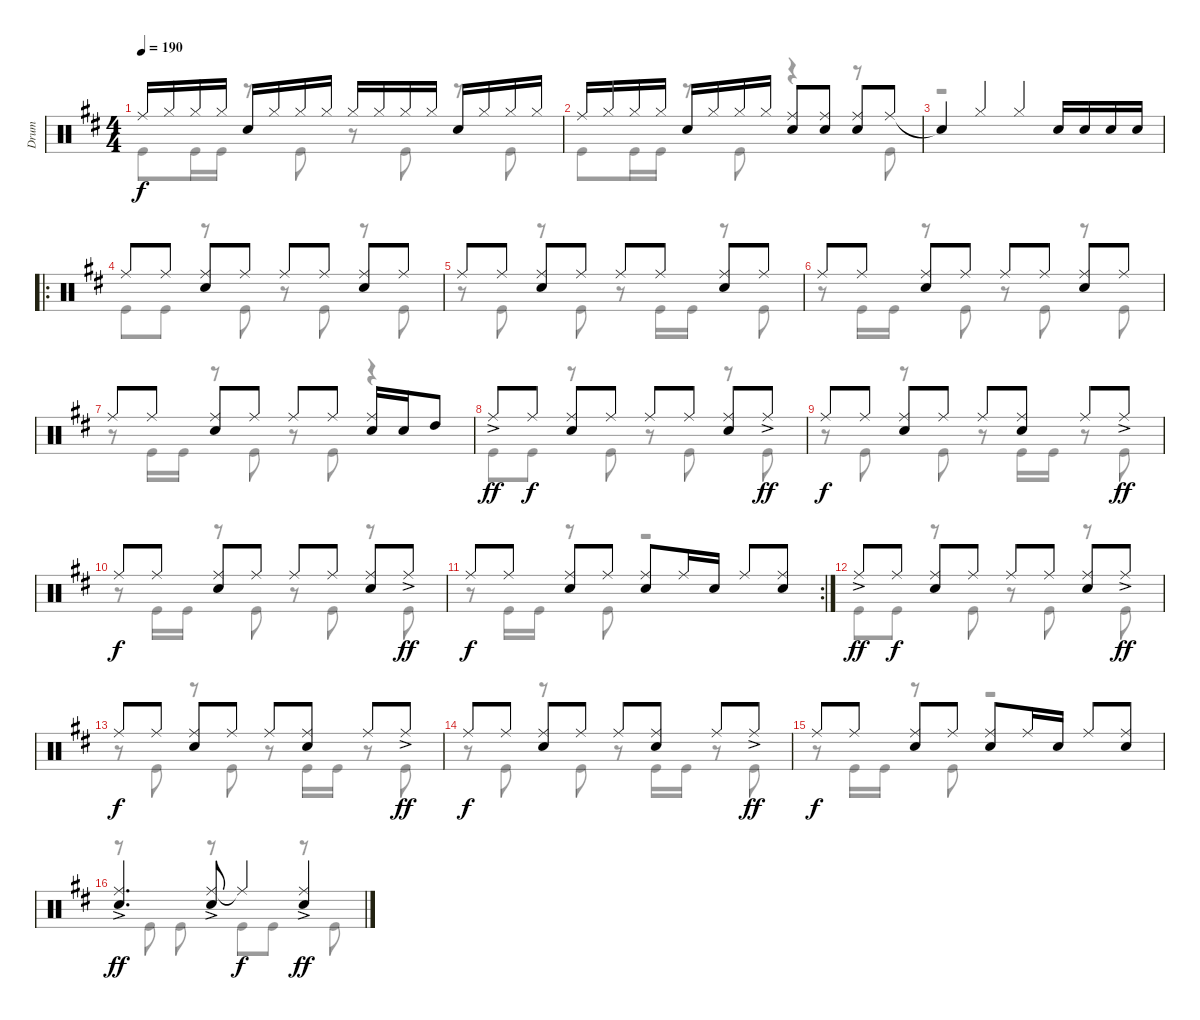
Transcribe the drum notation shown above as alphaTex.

\track ("Drum" "Drum") {instrument percussion}
\staff {score}
\articulation defaults
\voice
\ts (4 4)
\tempo 190
\clef neutral
\ks d "Ride (middle)".16{dy f} "Hi-Hat (closed)".16 "Hi-Hat (closed)".16 "Hi-Hat (closed)".16 "Snare (hit) 2".16 "Hi-Hat (closed)".16 "Hi-Hat (closed)".16 "Hi-Hat (closed)".16 "Hi-Hat (closed)".16 "Hi-Hat (closed)".16 "Hi-Hat (closed)".16 "Hi-Hat (closed)".16 "Snare (hit) 2".16 "Hi-Hat (closed)".16 "Hi-Hat (closed)".16 "Hi-Hat (closed)".16
|
"Ride (middle)".16 "Hi-Hat (closed)".16 "Hi-Hat (closed)".16 "Hi-Hat (closed)".16 "Snare (hit) 2".16 "Hi-Hat (closed)".16 "Hi-Hat (closed)".16 "Hi-Hat (closed)".16 ("Ride (middle)" "Snare (hit) 2").8 ("Ride (middle)" "Snare (hit) 2").8 ("Ride (middle)" "Snare (hit) 2").8 "Ride (middle)".8 |
"Snare (hit)"{t}.4 "Hi-Hat (closed)".4 "Hi-Hat (closed)".4 "Snare (hit) 2".16 "Snare (hit) 2".16 "Snare (hit) 2".16 "Snare (hit) 2".16 |
\ro "Ride (middle)".8 "Ride (middle)".8
("Ride (middle)" "Snare (hit) 2").8 "Ride (middle)".8 "Ride (middle)".8 "Ride (middle)".8 ("Ride (middle)" "Snare (hit) 2").8 "Ride (middle)".8 |
"Ride (middle)".8 "Ride (middle)".8 ("Ride (middle)" "Snare (hit) 2").8 "Ride (middle)".8 "Ride (middle)".8 "Ride (middle)".8 ("Ride (middle)" "Snare (hit) 2").8 "Ride (middle)".8 |
"Ride (middle)".8 "Ride (middle)".8 ("Ride (middle)" "Snare (hit) 2").8 "Ride (middle)".8 "Ride (middle)".8 "Ride (middle)".8 ("Ride (middle)" "Snare (hit) 2").8 "Ride (middle)".8 |
"Ride (middle)".8 "Ride (middle)".8 ("Ride (middle)" "Snare (hit) 2").8 "Ride (middle)".8 "Ride (middle)".8 "Ride (middle)".8 ("Ride (middle)" "Snare (hit) 2").16 "Snare (hit) 2".16 "High Tom (hit)".8 |
"Ride (middle)"{ac}.8{dy ff} "Ride (middle)".8{dy f} ("Ride (middle)" "Snare (hit) 2").8 "Ride (middle)".8 "Ride (middle)".8 "Ride (middle)".8 ("Ride (middle)" "Snare (hit) 2").8 "Ride (middle)"{ac}.8{dy ff} |
"Ride (middle)".8{dy f} "Ride (middle)".8 ("Ride (middle)" "Snare (hit) 2").8 "Ride (middle)".8 "Ride (middle)".8 ("Ride (middle)" "Snare (hit) 2").8 "Ride (middle)".8 "Ride (middle)"{ac}.8{dy ff} |
"Ride (middle)".8{dy f} "Ride (middle)".8 ("Ride (middle)" "Snare (hit) 2").8 "Ride (middle)".8 "Ride (middle)".8 "Ride (middle)".8 ("Ride (middle)" "Snare (hit) 2").8 "Ride (middle)"{ac}.8{dy ff} |
\rc 2 "Ride (middle)".8{dy f} "Ride (middle)".8
("Ride (middle)" "Snare (hit) 2").8 "Ride (middle)".8 ("Ride (middle)" "Snare (hit) 2").8 "Ride (middle)".16 "Snare (hit) 2".16 "Ride (middle)".8 ("Ride (middle)" "Snare (hit) 2").8 |
"Ride (middle)"{ac}.8{dy ff} "Ride (middle)".8{dy f} ("Ride (middle)" "Snare (hit) 2").8 "Ride (middle)".8 "Ride (middle)".8 "Ride (middle)".8 ("Ride (middle)" "Snare (hit) 2").8 "Ride (middle)"{ac}.8{dy ff} |
"Ride (middle)".8{dy f} "Ride (middle)".8 ("Ride (middle)" "Snare (hit) 2").8 "Ride (middle)".8 "Ride (middle)".8 ("Ride (middle)" "Snare (hit) 2").8 "Ride (middle)".8 "Ride (middle)"{ac}.8{dy ff} |
"Ride (middle)".8{dy f} "Ride (middle)".8 ("Ride (middle)" "Snare (hit) 2").8 "Ride (middle)".8 "Ride (middle)".8 ("Ride (middle)" "Snare (hit) 2").8 "Ride (middle)".8 "Ride (middle)"{ac}.8{dy ff} |
"Ride (middle)".8{dy f} "Ride (middle)".8 ("Ride (middle)" "Snare (hit) 2").8 "Ride (middle)".8 ("Ride (middle)" "Snare (hit) 2").8 "Ride (middle)".16 "Snare (hit) 2".16 "Ride (middle)".8 ("Ride (middle)" "Snare (hit) 2").8 |
("Ride (middle)"{ac} "Snare (hit) 2").4{d dy ff} ("Ride (middle)"{ac} "Snare (hit) 2").8 "Ride (middle)"{t}.4{dy f} ("Ride (middle)"{ac} "Snare (hit) 2").4{dy ff}
\voice
\clef neutral
\ottava regular
\simile none
\ks d "Kick (hit)".8{dy f} "Kick (hit)".16 "Kick (hit)".16
r.8 "Kick (hit)".8 r.8 "Kick (hit)".8 r.8 "Kick (hit)".8 |
"Kick (hit)".8 "Kick (hit)".16 "Kick (hit)".16 r.8 "Kick (hit)".8 r.4 r.8 "Kick (hit)".8 |
r.1 |
"Kick (hit)".8 "Kick (hit)".8 r.8 "Kick (hit)".8 r.8 "Kick (hit)".8 r.8 "Kick (hit)".8 |
r.8 "Kick (hit)".8 r.8 "Kick (hit)".8 r.8 "Kick (hit)".16 "Kick (hit)".16 r.8 "Kick (hit)".8 |
r.8 "Kick (hit)".16 "Kick (hit)".16 r.8 "Kick (hit)".8 r.8 "Kick (hit)".8 r.8 "Kick (hit)".8 |
r.8 "Kick (hit)".16 "Kick (hit)".16 r.8 "Kick (hit)".8 r.8 "Kick (hit)".8 r.4 |
"Kick (hit)".8 "Kick (hit)".8 r.8 "Kick (hit)".8 r.8 "Kick (hit)".8 r.8 "Kick (hit)".8 |
r.8 "Kick (hit)".8 r.8 "Kick (hit)".8 r.8 "Kick (hit)".16 "Kick (hit)".16 r.8 "Kick (hit)".8 |
r.8 "Kick (hit)".16 "Kick (hit)".16 r.8 "Kick (hit)".8 r.8 "Kick (hit)".8 r.8 "Kick (hit)".8 |
r.8 "Kick (hit)".16 "Kick (hit)".16 r.8 "Kick (hit)".8 r.2 |
"Kick (hit)".8 "Kick (hit)".8 r.8 "Kick (hit)".8 r.8 "Kick (hit)".8 r.8 "Kick (hit)".8 |
r.8 "Kick (hit)".8 r.8 "Kick (hit)".8 r.8 "Kick (hit)".16 "Kick (hit)".16 r.8 "Kick (hit)".8 |
r.8 "Kick (hit)".8 r.8 "Kick (hit)".8 r.8 "Kick (hit)".16 "Kick (hit)".16 r.8 "Kick (hit)".8 |
r.8 "Kick (hit)".16 "Kick (hit)".16 r.8 "Kick (hit)".8 r.2 |
r.8 "Kick (hit)".8 "Kick (hit)".8 r.8 "Kick (hit)".8 "Kick (hit)".8 r.8 "Kick (hit)".8
